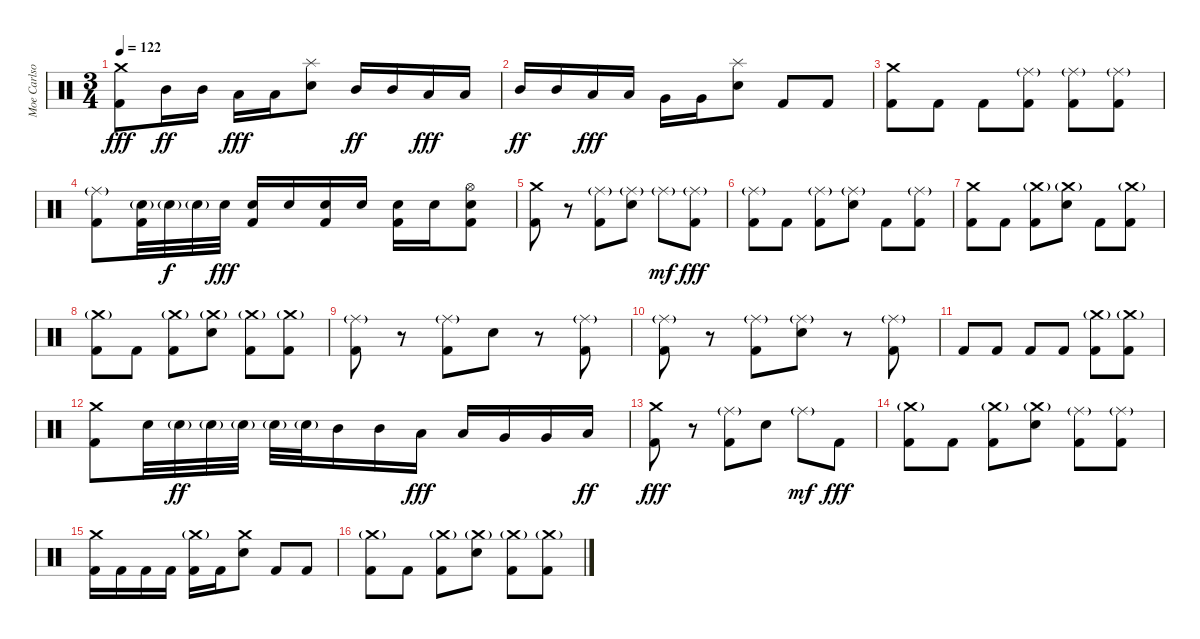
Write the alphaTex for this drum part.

\track ("Moe Carlson" "Moe Carlso") {instrument percussion}
\staff {score}
\articulation defaults
\ts (3 4)
\tempo 122
\clef neutral
\ks c
("Crash medium (hit)" "Kick (hit) 2").8{dy fff} "Mid Tom (hit)".16{dy ff} "Mid Tom (hit)".16 "Low Tom (hit)".16{dy fff} "Low Tom (hit)".16 ("Splash (hit)" "Electric Snare (hit)").8 "Mid Tom (hit)".16{dy ff} "Mid Tom (hit)".16 "Low Tom (hit)".16{dy fff} "Low Tom (hit)".16 |
"Mid Tom (hit)".16{dy ff} "Mid Tom (hit)".16 "Low Tom (hit)".16{dy fff} "Low Tom (hit)".16 "Very Low Tom (hit)".16 "Very Low Tom (hit)".16 ("Splash (hit)" "Electric Snare (hit)").8 "Kick (hit) 2".8 "Kick (hit) 2".8 |
("Crash medium (hit)" "Kick (hit) 2").8 "Kick (hit) 2".8 "Kick (hit) 2".8 ("Ride (middle)"{g} "Kick (hit) 2").8 ("Ride (middle)"{g} "Kick (hit) 2").8 ("Ride (middle)"{g} "Kick (hit) 2").8 |
("Ride (middle)"{g} "Kick (hit) 2").8 ("Electric Snare (hit)"{g} "Kick (hit) 2").32 "Electric Snare (hit)"{g}.32{dy f} "Electric Snare (hit)"{g}.32 "Electric Snare (hit)".32{dy fff} ("Electric Snare (hit)" "Kick (hit) 2").16 "Electric Snare (hit)".16 ("Electric Snare (hit)" "Kick (hit) 2").16 "Electric Snare (hit)".16 ("Electric Snare (hit)" "Kick (hit) 2").16 "Electric Snare (hit)".16 ("Hi-Hat (open)" "Electric Snare (hit)" "Kick (hit) 2").8 |
("Crash medium (hit)" "Kick (hit) 2").8 r.8 ("Ride (middle)"{g} "Kick (hit) 2").8 ("Ride (middle)"{g} "Electric Snare (hit)").8 "Ride (middle)"{g}.8{dy mf} ("Ride (middle)"{g} "Kick (hit) 2").8{dy fff} |
("Ride (middle)"{g} "Kick (hit) 2").8 "Kick (hit) 2".8 ("Ride (middle)"{g} "Kick (hit) 2").8 ("Ride (middle)"{g} "Electric Snare (hit)").8 "Kick (hit) 2".8 ("Ride (middle)"{g} "Kick (hit) 2").8 |
("Crash medium (hit)" "Kick (hit) 2").8 "Kick (hit) 2".8 ("Crash medium (hit)"{g} "Kick (hit) 2").8 ("Crash medium (hit)"{g} "Electric Snare (hit)").8 "Kick (hit) 2".8 ("Crash medium (hit)"{g} "Kick (hit) 2").8 |
("Crash medium (hit)"{g} "Kick (hit) 2").8 "Kick (hit) 2".8 ("Crash medium (hit)"{g} "Kick (hit) 2").8 ("Crash medium (hit)"{g} "Electric Snare (hit)").8 ("Crash medium (hit)"{g} "Kick (hit) 2").8 ("Crash medium (hit)"{g} "Kick (hit) 2").8 |
("Ride (middle)"{g} "Kick (hit) 2").8 r.8 ("Ride (middle)"{g} "Kick (hit) 2").8 "Electric Snare (hit)".8 r.8 ("Ride (middle)"{g} "Kick (hit) 2").8 |
("Ride (middle)"{g} "Kick (hit) 2").8 r.8 ("Ride (middle)"{g} "Kick (hit) 2").8 ("Ride (middle)"{g} "Electric Snare (hit)").8 r.8 ("Ride (middle)"{g} "Kick (hit) 2").8 |
"Kick (hit) 2".8 "Kick (hit) 2".8 "Kick (hit) 2".8 "Kick (hit) 2".8 ("Crash medium (hit)"{g} "Kick (hit) 2").8 ("Crash medium (hit)"{g} "Kick (hit) 2").8 |
("Crash medium (hit)" "Kick (hit) 2").8 "Electric Snare (hit)".32 "Electric Snare (hit)"{g}.32{dy ff} "Electric Snare (hit)"{g}.32 "Electric Snare (hit)"{g}.32 "Electric Snare (hit)"{g}.32 "Electric Snare (hit)"{g}.32 "Mid Tom (hit)".16 "Mid Tom (hit)".16 "Low Tom (hit)".16{dy fff} "Low Tom (hit)".16 "Very Low Tom (hit)".16 "Very Low Tom (hit)".16 "Low Floor Tom (hit)".16{dy ff} |
("Crash medium (hit)" "Kick (hit) 2").8{dy fff} r.8 ("Ride (middle)"{g} "Kick (hit) 2").8 "Electric Snare (hit)".8 "Ride (middle)"{g}.8{dy mf} "Kick (hit) 2".8{dy fff} |
("Crash medium (hit)"{g} "Kick (hit) 2").8 "Kick (hit) 2".8 ("Crash medium (hit)"{g} "Kick (hit) 2").8 ("Crash medium (hit)"{g} "Electric Snare (hit)").8 ("Ride (middle)"{g} "Kick (hit) 2").8 ("Ride (middle)"{g} "Kick (hit) 2").8 |
("Crash medium (hit)" "Kick (hit) 2").16 "Kick (hit) 2".16 "Kick (hit) 2".16 "Kick (hit) 2".16 ("Crash medium (hit)"{g} "Kick (hit) 2").16 "Kick (hit) 2".16 ("Crash medium (hit)" "Electric Snare (hit)").8 "Kick (hit) 2".8 "Kick (hit) 2".8 |
("Crash medium (hit)"{g} "Kick (hit) 2").8 "Kick (hit) 2".8 ("Crash medium (hit)"{g} "Kick (hit) 2").8 ("Crash medium (hit)"{g} "Electric Snare (hit)").8 ("Crash medium (hit)"{g} "Kick (hit) 2").8 ("Crash medium (hit)"{g} "Kick (hit) 2").8
